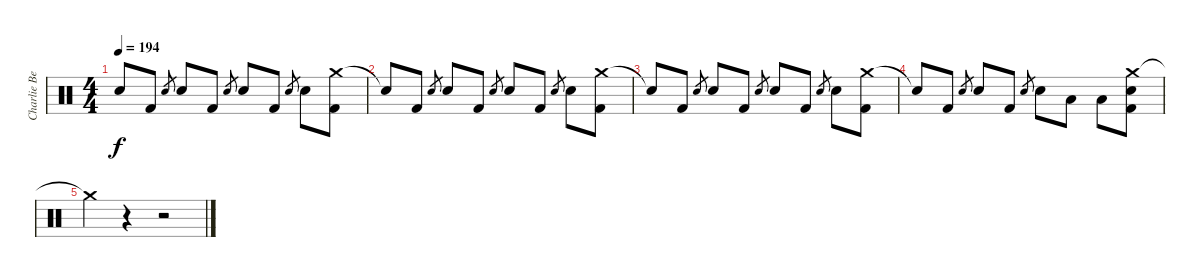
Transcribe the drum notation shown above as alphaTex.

\track ("Charlie Benate " "Charlie Be") {instrument percussion}
\staff {score}
\articulation defaults
\ts (4 4)
\tempo 194
\clef neutral
\ks c "Snare (hit)"{t}.8{dy f} "Kick (hit) 2".8 "Snare (hit) 2".8{gr} "Snare (hit) 2".8 "Kick (hit) 2".8 "Snare (hit) 2".8{gr} "Snare (hit) 2".8 "Kick (hit) 2".8 "Snare (hit) 2".8{gr} "Snare (hit) 2".8
("Crash medium (hit)" "Kick (hit) 2").8 |
"Snare (hit)"{t}.8 "Kick (hit) 2".8 "Snare (hit) 2".8{gr} "Snare (hit) 2".8 "Kick (hit) 2".8 "Snare (hit) 2".8{gr} "Snare (hit) 2".8 "Kick (hit) 2".8 "Snare (hit) 2".8{gr} "Snare (hit) 2".8 ("Crash medium (hit)" "Kick (hit) 2").8 |
"Snare (hit)"{t}.8 "Kick (hit) 2".8 "Snare (hit) 2".8{gr} "Snare (hit) 2".8 "Kick (hit) 2".8 "Snare (hit) 2".8{gr} "Snare (hit) 2".8 "Kick (hit) 2".8 "Snare (hit) 2".8{gr} "Snare (hit) 2".8 ("Crash medium (hit)" "Kick (hit) 2").8 |
"Snare (hit)"{t}.8 "Kick (hit) 2".8 "Snare (hit) 2".8{gr} "Snare (hit) 2".8 "Kick (hit) 2".8 "Snare (hit) 2".8{gr} "Snare (hit) 2".8 "Low Tom (hit)".8 "Low Tom (hit)".8 ("Crash medium (hit)" "Snare (hit) 2" "Kick (hit) 2").8 |
"Crash medium (hit)"{t}.4 r.4 r.2
